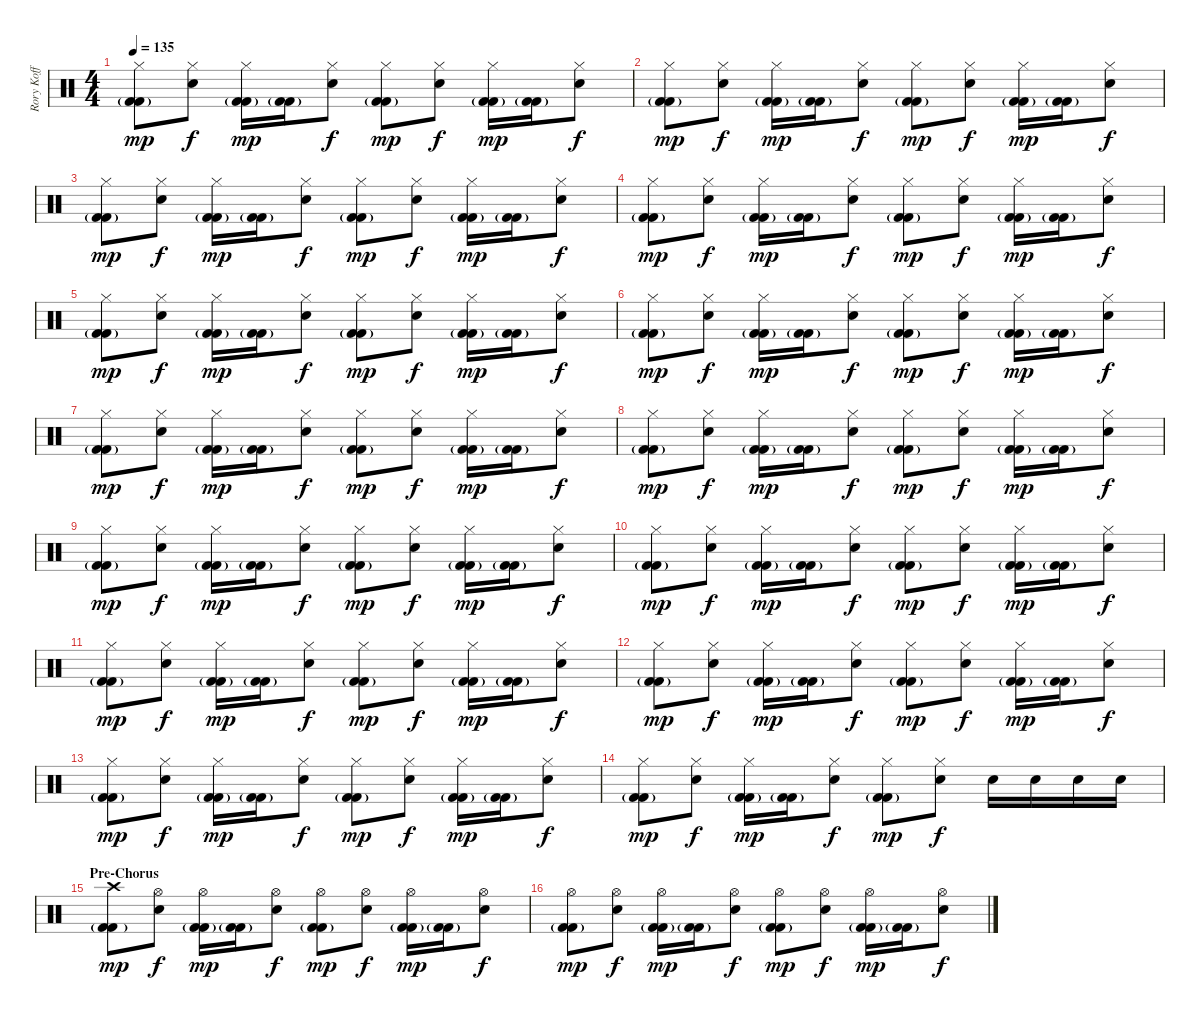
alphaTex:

\track ("Rory Koff" "Rory Koff") {instrument percussion}
\staff {score}
\articulation defaults
\ts (4 4)
\tempo 135
\clef neutral
\ks c
("Hi-Hat (closed)" "Kick (hit) 2"{g} "Kick (hit) 2").8{dy mp} ("Hi-Hat (closed)" "Snare (hit) 2").8{dy f} ("Hi-Hat (closed)" "Kick (hit) 2"{g} "Kick (hit) 2").16{dy mp} ("Kick (hit) 2"{g} "Kick (hit) 2").16 ("Hi-Hat (closed)" "Snare (hit) 2").8{dy f} ("Hi-Hat (closed)" "Kick (hit) 2"{g} "Kick (hit) 2").8{dy mp} ("Hi-Hat (closed)" "Snare (hit) 2").8{dy f} ("Hi-Hat (closed)" "Kick (hit) 2"{g} "Kick (hit) 2").16{dy mp} ("Kick (hit) 2"{g} "Kick (hit) 2").16 ("Hi-Hat (closed)" "Snare (hit) 2").8{dy f} |
("Hi-Hat (closed)" "Kick (hit) 2"{g} "Kick (hit) 2").8{dy mp} ("Hi-Hat (closed)" "Snare (hit) 2").8{dy f} ("Hi-Hat (closed)" "Kick (hit) 2"{g} "Kick (hit) 2").16{dy mp} ("Kick (hit) 2"{g} "Kick (hit) 2").16 ("Hi-Hat (closed)" "Snare (hit) 2").8{dy f} ("Hi-Hat (closed)" "Kick (hit) 2"{g} "Kick (hit) 2").8{dy mp} ("Hi-Hat (closed)" "Snare (hit) 2").8{dy f} ("Hi-Hat (closed)" "Kick (hit) 2"{g} "Kick (hit) 2").16{dy mp} ("Kick (hit) 2"{g} "Kick (hit) 2").16 ("Hi-Hat (closed)" "Snare (hit) 2").8{dy f} |
("Hi-Hat (closed)" "Kick (hit) 2"{g} "Kick (hit) 2").8{dy mp} ("Hi-Hat (closed)" "Snare (hit) 2").8{dy f} ("Hi-Hat (closed)" "Kick (hit) 2"{g} "Kick (hit) 2").16{dy mp} ("Kick (hit) 2"{g} "Kick (hit) 2").16 ("Hi-Hat (closed)" "Snare (hit) 2").8{dy f} ("Hi-Hat (closed)" "Kick (hit) 2"{g} "Kick (hit) 2").8{dy mp} ("Hi-Hat (closed)" "Snare (hit) 2").8{dy f} ("Hi-Hat (closed)" "Kick (hit) 2"{g} "Kick (hit) 2").16{dy mp} ("Kick (hit) 2"{g} "Kick (hit) 2").16 ("Hi-Hat (closed)" "Snare (hit) 2").8{dy f} |
("Hi-Hat (closed)" "Kick (hit) 2"{g} "Kick (hit) 2").8{dy mp} ("Hi-Hat (closed)" "Snare (hit) 2").8{dy f} ("Hi-Hat (closed)" "Kick (hit) 2"{g} "Kick (hit) 2").16{dy mp} ("Kick (hit) 2"{g} "Kick (hit) 2").16 ("Hi-Hat (closed)" "Snare (hit) 2").8{dy f} ("Hi-Hat (closed)" "Kick (hit) 2"{g} "Kick (hit) 2").8{dy mp} ("Hi-Hat (closed)" "Snare (hit) 2").8{dy f} ("Hi-Hat (closed)" "Kick (hit) 2"{g} "Kick (hit) 2").16{dy mp} ("Kick (hit) 2"{g} "Kick (hit) 2").16 ("Hi-Hat (closed)" "Snare (hit) 2").8{dy f} |
("Hi-Hat (closed)" "Kick (hit) 2"{g} "Kick (hit) 2").8{dy mp} ("Hi-Hat (closed)" "Snare (hit) 2").8{dy f} ("Hi-Hat (closed)" "Kick (hit) 2"{g} "Kick (hit) 2").16{dy mp} ("Kick (hit) 2"{g} "Kick (hit) 2").16 ("Hi-Hat (closed)" "Snare (hit) 2").8{dy f} ("Hi-Hat (closed)" "Kick (hit) 2"{g} "Kick (hit) 2").8{dy mp} ("Hi-Hat (closed)" "Snare (hit) 2").8{dy f} ("Hi-Hat (closed)" "Kick (hit) 2"{g} "Kick (hit) 2").16{dy mp} ("Kick (hit) 2"{g} "Kick (hit) 2").16 ("Hi-Hat (closed)" "Snare (hit) 2").8{dy f} |
("Hi-Hat (closed)" "Kick (hit) 2"{g} "Kick (hit) 2").8{dy mp} ("Hi-Hat (closed)" "Snare (hit) 2").8{dy f} ("Hi-Hat (closed)" "Kick (hit) 2"{g} "Kick (hit) 2").16{dy mp} ("Kick (hit) 2"{g} "Kick (hit) 2").16 ("Hi-Hat (closed)" "Snare (hit) 2").8{dy f} ("Hi-Hat (closed)" "Kick (hit) 2"{g} "Kick (hit) 2").8{dy mp} ("Hi-Hat (closed)" "Snare (hit) 2").8{dy f} ("Hi-Hat (closed)" "Kick (hit) 2"{g} "Kick (hit) 2").16{dy mp} ("Kick (hit) 2"{g} "Kick (hit) 2").16 ("Hi-Hat (closed)" "Snare (hit) 2").8{dy f} |
("Hi-Hat (closed)" "Kick (hit) 2"{g} "Kick (hit) 2").8{dy mp} ("Hi-Hat (closed)" "Snare (hit) 2").8{dy f} ("Hi-Hat (closed)" "Kick (hit) 2"{g} "Kick (hit) 2").16{dy mp} ("Kick (hit) 2"{g} "Kick (hit) 2").16 ("Hi-Hat (closed)" "Snare (hit) 2").8{dy f} ("Hi-Hat (closed)" "Kick (hit) 2"{g} "Kick (hit) 2").8{dy mp} ("Hi-Hat (closed)" "Snare (hit) 2").8{dy f} ("Hi-Hat (closed)" "Kick (hit) 2"{g} "Kick (hit) 2").16{dy mp} ("Kick (hit) 2"{g} "Kick (hit) 2").16 ("Hi-Hat (closed)" "Snare (hit) 2").8{dy f} |
("Hi-Hat (closed)" "Kick (hit) 2"{g} "Kick (hit) 2").8{dy mp} ("Hi-Hat (closed)" "Snare (hit) 2").8{dy f} ("Hi-Hat (closed)" "Kick (hit) 2"{g} "Kick (hit) 2").16{dy mp} ("Kick (hit) 2"{g} "Kick (hit) 2").16 ("Hi-Hat (closed)" "Snare (hit) 2").8{dy f} ("Hi-Hat (closed)" "Kick (hit) 2"{g} "Kick (hit) 2").8{dy mp} ("Hi-Hat (closed)" "Snare (hit) 2").8{dy f} ("Hi-Hat (closed)" "Kick (hit) 2"{g} "Kick (hit) 2").16{dy mp} ("Kick (hit) 2"{g} "Kick (hit) 2").16 ("Hi-Hat (closed)" "Snare (hit) 2").8{dy f} |
("Hi-Hat (closed)" "Kick (hit) 2"{g} "Kick (hit) 2").8{dy mp} ("Hi-Hat (closed)" "Snare (hit) 2").8{dy f} ("Hi-Hat (closed)" "Kick (hit) 2"{g} "Kick (hit) 2").16{dy mp} ("Kick (hit) 2"{g} "Kick (hit) 2").16 ("Hi-Hat (closed)" "Snare (hit) 2").8{dy f} ("Hi-Hat (closed)" "Kick (hit) 2"{g} "Kick (hit) 2").8{dy mp} ("Hi-Hat (closed)" "Snare (hit) 2").8{dy f} ("Hi-Hat (closed)" "Kick (hit) 2"{g} "Kick (hit) 2").16{dy mp} ("Kick (hit) 2"{g} "Kick (hit) 2").16 ("Hi-Hat (closed)" "Snare (hit) 2").8{dy f} |
("Hi-Hat (closed)" "Kick (hit) 2"{g} "Kick (hit) 2").8{dy mp} ("Hi-Hat (closed)" "Snare (hit) 2").8{dy f} ("Hi-Hat (closed)" "Kick (hit) 2"{g} "Kick (hit) 2").16{dy mp} ("Kick (hit) 2"{g} "Kick (hit) 2").16 ("Hi-Hat (closed)" "Snare (hit) 2").8{dy f} ("Hi-Hat (closed)" "Kick (hit) 2"{g} "Kick (hit) 2").8{dy mp} ("Hi-Hat (closed)" "Snare (hit) 2").8{dy f} ("Hi-Hat (closed)" "Kick (hit) 2"{g} "Kick (hit) 2").16{dy mp} ("Kick (hit) 2"{g} "Kick (hit) 2").16 ("Hi-Hat (closed)" "Snare (hit) 2").8{dy f} |
("Hi-Hat (closed)" "Kick (hit) 2"{g} "Kick (hit) 2").8{dy mp} ("Hi-Hat (closed)" "Snare (hit) 2").8{dy f} ("Hi-Hat (closed)" "Kick (hit) 2"{g} "Kick (hit) 2").16{dy mp} ("Kick (hit) 2"{g} "Kick (hit) 2").16 ("Hi-Hat (closed)" "Snare (hit) 2").8{dy f} ("Hi-Hat (closed)" "Kick (hit) 2"{g} "Kick (hit) 2").8{dy mp} ("Hi-Hat (closed)" "Snare (hit) 2").8{dy f} ("Hi-Hat (closed)" "Kick (hit) 2"{g} "Kick (hit) 2").16{dy mp} ("Kick (hit) 2"{g} "Kick (hit) 2").16 ("Hi-Hat (closed)" "Snare (hit) 2").8{dy f} |
("Hi-Hat (closed)" "Kick (hit) 2"{g} "Kick (hit) 2").8{dy mp} ("Hi-Hat (closed)" "Snare (hit) 2").8{dy f} ("Hi-Hat (closed)" "Kick (hit) 2"{g} "Kick (hit) 2").16{dy mp} ("Kick (hit) 2"{g} "Kick (hit) 2").16 ("Hi-Hat (closed)" "Snare (hit) 2").8{dy f} ("Hi-Hat (closed)" "Kick (hit) 2"{g} "Kick (hit) 2").8{dy mp} ("Hi-Hat (closed)" "Snare (hit) 2").8{dy f} ("Hi-Hat (closed)" "Kick (hit) 2"{g} "Kick (hit) 2").16{dy mp} ("Kick (hit) 2"{g} "Kick (hit) 2").16 ("Hi-Hat (closed)" "Snare (hit) 2").8{dy f} |
("Hi-Hat (closed)" "Kick (hit) 2"{g} "Kick (hit) 2").8{dy mp} ("Hi-Hat (closed)" "Snare (hit) 2").8{dy f} ("Hi-Hat (closed)" "Kick (hit) 2"{g} "Kick (hit) 2").16{dy mp} ("Kick (hit) 2"{g} "Kick (hit) 2").16 ("Hi-Hat (closed)" "Snare (hit) 2").8{dy f} ("Hi-Hat (closed)" "Kick (hit) 2"{g} "Kick (hit) 2").8{dy mp} ("Hi-Hat (closed)" "Snare (hit) 2").8{dy f} ("Hi-Hat (closed)" "Kick (hit) 2"{g} "Kick (hit) 2").16{dy mp} ("Kick (hit) 2"{g} "Kick (hit) 2").16 ("Hi-Hat (closed)" "Snare (hit) 2").8{dy f} |
("Hi-Hat (closed)" "Kick (hit) 2"{g} "Kick (hit) 2").8{dy mp} ("Hi-Hat (closed)" "Snare (hit) 2").8{dy f} ("Hi-Hat (closed)" "Kick (hit) 2"{g} "Kick (hit) 2").16{dy mp} ("Kick (hit) 2"{g} "Kick (hit) 2").16 ("Hi-Hat (closed)" "Snare (hit) 2").8{dy f} ("Hi-Hat (closed)" "Kick (hit) 2"{g} "Kick (hit) 2").8{dy mp} ("Hi-Hat (closed)" "Snare (hit) 2").8{dy f} "Snare (hit) 2".16 "Snare (hit) 2".16 "Snare (hit) 2".16 "Snare (hit) 2".16 |
\section ("" "Pre-Chorus")
("Crash high (hit)" "Kick (hit) 2"{g} "Kick (hit) 2").8{dy mp} ("Hi-Hat (open)" "Snare (hit) 2").8{dy f} ("Hi-Hat (open)" "Kick (hit) 2"{g} "Kick (hit) 2").16{dy mp} ("Kick (hit) 2"{g} "Kick (hit) 2").16 ("Hi-Hat (open)" "Snare (hit) 2").8{dy f} ("Hi-Hat (open)" "Kick (hit) 2"{g} "Kick (hit) 2").8{dy mp} ("Hi-Hat (open)" "Snare (hit) 2").8{dy f} ("Hi-Hat (open)" "Kick (hit) 2"{g} "Kick (hit) 2").16{dy mp} ("Kick (hit) 2"{g} "Kick (hit) 2").16 ("Hi-Hat (open)" "Snare (hit) 2").8{dy f} |
("Hi-Hat (open)" "Kick (hit) 2"{g} "Kick (hit) 2").8{dy mp} ("Hi-Hat (open)" "Snare (hit) 2").8{dy f} ("Hi-Hat (open)" "Kick (hit) 2"{g} "Kick (hit) 2").16{dy mp} ("Kick (hit) 2"{g} "Kick (hit) 2").16 ("Hi-Hat (open)" "Snare (hit) 2").8{dy f} ("Hi-Hat (open)" "Kick (hit) 2"{g} "Kick (hit) 2").8{dy mp} ("Hi-Hat (open)" "Snare (hit) 2").8{dy f} ("Hi-Hat (open)" "Kick (hit) 2"{g} "Kick (hit) 2").16{dy mp} ("Kick (hit) 2"{g} "Kick (hit) 2").16 ("Hi-Hat (open)" "Snare (hit) 2").8{dy f}
